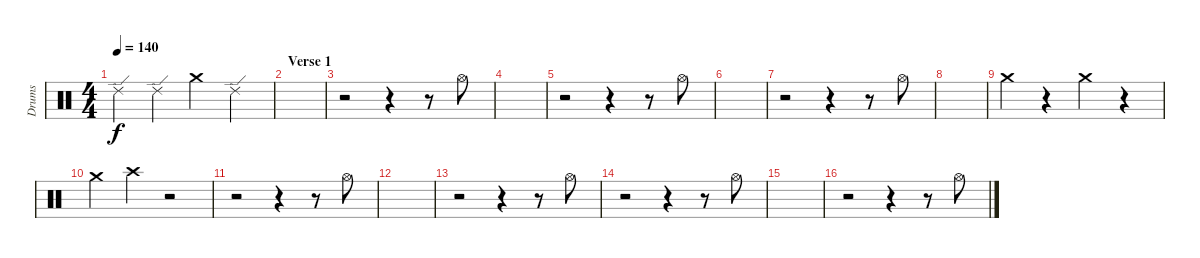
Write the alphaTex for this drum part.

\track ("Drums" "Drums") {instrument percussion}
\staff {score}
\articulation defaults
\ts (4 4)
\tempo 140
\clef neutral
\ks c "Ride (edge) 2".4{dy f} "Ride (edge) 2".4 "Crash medium (hit)".4 "Ride (edge) 2".4
|
\section ("" "Verse 1")
|
r.2 r.4 r.8 "Hi-Hat (open)".8 |
|
r.2 r.4 r.8 "Hi-Hat (open)".8 |
|
r.2 r.4 r.8 "Hi-Hat (open)".8 |
|
"Crash medium (hit)".4 r.4 "Crash medium (hit)".4 r.4 |
"Crash medium (hit)".4 "Crash high (hit)".4 r.2 |
r.2 r.4 r.8 "Hi-Hat (open)".8 |
|
r.2 r.4 r.8 "Hi-Hat (open)".8 |
r.2 r.4 r.8 "Hi-Hat (open)".8 |
|
r.2 r.4 r.8 "Hi-Hat (open)".8
